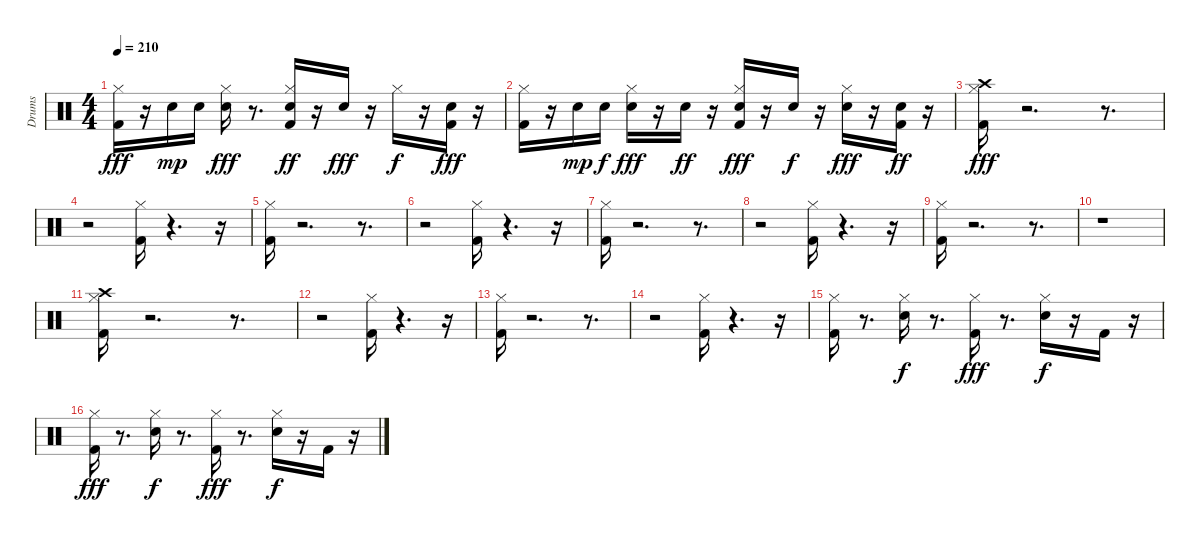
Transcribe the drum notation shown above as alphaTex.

\track ("Drums " "Drums ") {instrument percussion}
\staff {score}
\articulation defaults
\ts (4 4)
\tempo 210
\clef neutral
\ks c
("Kick (hit) 2" "Hi-Hat (closed)").16{dy fff} r.16 "Snare (hit) 2".16{dy mp} "Snare (hit) 2".16 ("Snare (hit) 2" "Hi-Hat (closed)").16{dy fff} r.8{d} ("Kick (hit) 2" "Snare (hit) 2" "Hi-Hat (closed)").16{dy ff} r.16 "Snare (hit) 2".16{dy fff} r.16 "Hi-Hat (closed)".16{dy f} r.16 ("Kick (hit) 2" "Snare (hit) 2").16{dy fff} r.16 |
("Kick (hit) 2" "Hi-Hat (closed)").16 r.16 "Snare (hit) 2".16{dy mp} "Snare (hit) 2".16{dy f} ("Snare (hit) 2" "Hi-Hat (closed)").16{dy fff} r.16 "Snare (hit) 2".16{dy ff} r.16 ("Kick (hit) 2" "Snare (hit) 2" "Hi-Hat (closed)").16{dy fff} r.16 "Snare (hit) 2".16{dy f} r.16 ("Snare (hit) 2" "Hi-Hat (closed)").16{dy fff} r.16 ("Kick (hit) 2" "Snare (hit) 2").16{dy ff} r.16 |
("Kick (hit) 2" "Hi-Hat (closed)" "Crash high (hit)").16{dy fff} r.2{d} r.8{d} |
r.2 ("Kick (hit) 2" "Hi-Hat (closed)").16 r.4{d} r.16 |
("Kick (hit) 2" "Hi-Hat (closed)").16 r.2{d} r.8{d} |
r.2 ("Kick (hit) 2" "Hi-Hat (closed)").16 r.4{d} r.16 |
("Kick (hit) 2" "Hi-Hat (closed)").16 r.2{d} r.8{d} |
r.2 ("Kick (hit) 2" "Hi-Hat (closed)").16 r.4{d} r.16 |
("Kick (hit) 2" "Hi-Hat (closed)").16 r.2{d} r.8{d} |
r.1 |
("Kick (hit) 2" "Hi-Hat (closed)" "Crash high (hit)").16 r.2{d} r.8{d} |
r.2 ("Kick (hit) 2" "Hi-Hat (closed)").16 r.4{d} r.16 |
("Kick (hit) 2" "Hi-Hat (closed)").16 r.2{d} r.8{d} |
r.2 ("Kick (hit) 2" "Hi-Hat (closed)").16 r.4{d} r.16 |
("Kick (hit) 2" "Hi-Hat (closed)").16 r.8{d} ("Snare (hit) 2" "Hi-Hat (closed)").16{dy f} r.8{d} ("Kick (hit) 2" "Hi-Hat (closed)").16{dy fff} r.8{d} ("Snare (hit) 2" "Hi-Hat (closed)").16{dy f} r.16 "Kick (hit) 2".16 r.16 |
("Kick (hit) 2" "Hi-Hat (closed)").16{dy fff} r.8{d} ("Snare (hit) 2" "Hi-Hat (closed)").16{dy f} r.8{d} ("Kick (hit) 2" "Hi-Hat (closed)").16{dy fff} r.8{d} ("Snare (hit) 2" "Hi-Hat (closed)").16{dy f} r.16 "Kick (hit) 2".16 r.16
